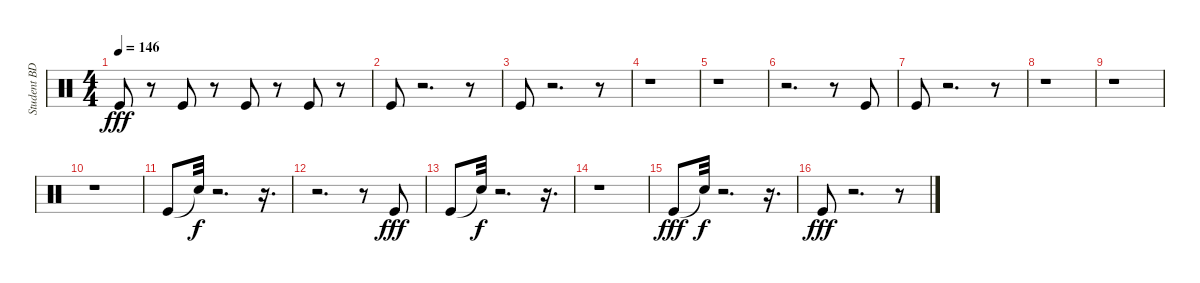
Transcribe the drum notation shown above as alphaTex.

\track ("Student BD" "Student BD") {instrument percussion}
\staff {score}
\articulation defaults
\ts (4 4)
\tempo 146
\clef neutral
\ks c "Kick (hit)".8{dy fff}
r.8 "Kick (hit)".8 r.8 "Kick (hit)".8 r.8 "Kick (hit)".8 r.8 |
"Kick (hit)".8 r.2{d} r.8 |
"Kick (hit)".8 r.2{d} r.8 |
r.1 |
r.1 |
r.2{d} r.8 "Kick (hit)".8 |
"Kick (hit)".8 r.2{d} r.8 |
r.1 |
r.1 |
r.1 |
"Kick (hit)".8 "Snare (hit)"{t}.32{dy f} r.2{d} r.16{d} |
r.2{d} r.8 "Kick (hit)".8{dy fff} |
"Kick (hit)".8 "Snare (hit)"{t}.32{dy f} r.2{d} r.16{d} |
r.1 |
"Kick (hit)".8{dy fff} "Snare (hit)"{t}.32{dy f} r.2{d} r.16{d} |
"Kick (hit)".8{dy fff} r.2{d} r.8
